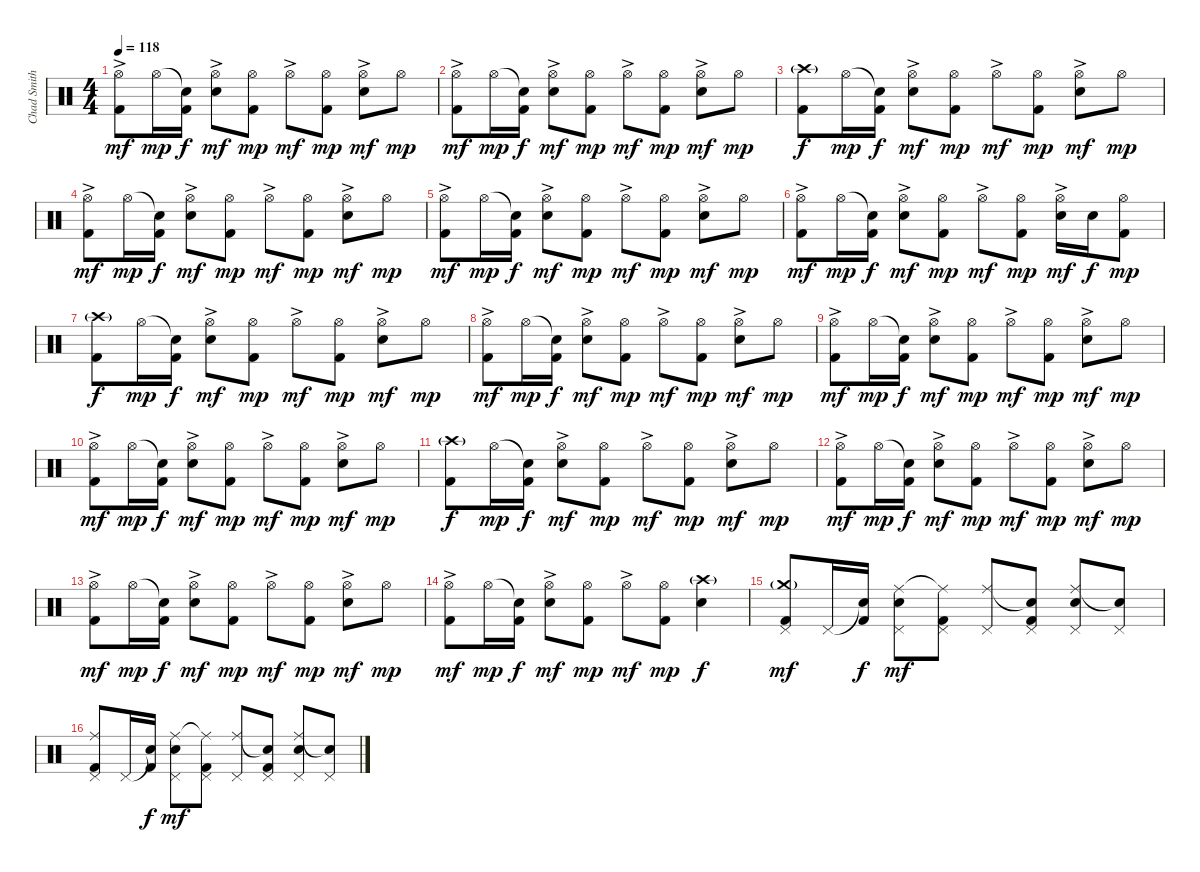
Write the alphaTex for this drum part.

\track ("Chad Smith" "Chad Smith") {instrument percussion}
\staff {score}
\articulation defaults
\ts (4 4)
\tempo 118
\clef neutral
\ks c
("Hi-Hat (open)"{ac} "Kick (hit) 2").8{dy mf} "Hi-Hat (open)".16{dy mp} ("Snare (hit)"{t} "Kick (hit) 2").16{dy f} ("Hi-Hat (open)"{ac} "Electric Snare (hit)").8{dy mf} ("Hi-Hat (open)" "Kick (hit) 2").8{dy mp} "Hi-Hat (open)"{ac}.8{dy mf} ("Hi-Hat (open)" "Kick (hit) 2").8{dy mp} ("Hi-Hat (open)"{ac} "Electric Snare (hit)").8{dy mf} "Hi-Hat (open)".8{dy mp} |
("Hi-Hat (open)"{ac} "Kick (hit) 2").8{dy mf} "Hi-Hat (open)".16{dy mp} ("Snare (hit)"{t} "Kick (hit) 2").16{dy f} ("Hi-Hat (open)"{ac} "Electric Snare (hit)").8{dy mf} ("Hi-Hat (open)" "Kick (hit) 2").8{dy mp} "Hi-Hat (open)"{ac}.8{dy mf} ("Hi-Hat (open)" "Kick (hit) 2").8{dy mp} ("Hi-Hat (open)"{ac} "Electric Snare (hit)").8{dy mf} "Hi-Hat (open)".8{dy mp} |
("Crash high (hit)"{g} "Kick (hit) 2").8{dy f} "Hi-Hat (open)".16{dy mp} ("Snare (hit)"{t} "Kick (hit) 2").16{dy f} ("Hi-Hat (open)"{ac} "Electric Snare (hit)").8{dy mf} ("Hi-Hat (open)" "Kick (hit) 2").8{dy mp} "Hi-Hat (open)"{ac}.8{dy mf} ("Hi-Hat (open)" "Kick (hit) 2").8{dy mp} ("Hi-Hat (open)"{ac} "Electric Snare (hit)").8{dy mf} "Hi-Hat (open)".8{dy mp} |
("Hi-Hat (open)"{ac} "Kick (hit) 2").8{dy mf} "Hi-Hat (open)".16{dy mp} ("Snare (hit)"{t} "Kick (hit) 2").16{dy f} ("Hi-Hat (open)"{ac} "Electric Snare (hit)").8{dy mf} ("Hi-Hat (open)" "Kick (hit) 2").8{dy mp} "Hi-Hat (open)"{ac}.8{dy mf} ("Hi-Hat (open)" "Kick (hit) 2").8{dy mp} ("Hi-Hat (open)"{ac} "Electric Snare (hit)").8{dy mf} "Hi-Hat (open)".8{dy mp} |
("Hi-Hat (open)"{ac} "Kick (hit) 2").8{dy mf} "Hi-Hat (open)".16{dy mp} ("Snare (hit)"{t} "Kick (hit) 2").16{dy f} ("Hi-Hat (open)"{ac} "Electric Snare (hit)").8{dy mf} ("Hi-Hat (open)" "Kick (hit) 2").8{dy mp} "Hi-Hat (open)"{ac}.8{dy mf} ("Hi-Hat (open)" "Kick (hit) 2").8{dy mp} ("Hi-Hat (open)"{ac} "Electric Snare (hit)").8{dy mf} "Hi-Hat (open)".8{dy mp} |
("Hi-Hat (open)"{ac} "Kick (hit) 2").8{dy mf} "Hi-Hat (open)".16{dy mp} ("Snare (hit)"{t} "Kick (hit) 2").16{dy f} ("Hi-Hat (open)"{ac} "Electric Snare (hit)").8{dy mf} ("Hi-Hat (open)" "Kick (hit) 2").8{dy mp} "Hi-Hat (open)"{ac}.8{dy mf} ("Hi-Hat (open)" "Kick (hit) 2").8{dy mp} ("Hi-Hat (open)"{ac} "Electric Snare (hit)").16{dy mf} "Electric Snare (hit)".16{dy f} ("Hi-Hat (open)" "Kick (hit) 2").8{dy mp} |
("Crash high (hit)"{g} "Kick (hit) 2").8{dy f} "Hi-Hat (open)".16{dy mp} ("Snare (hit)"{t} "Kick (hit) 2").16{dy f} ("Hi-Hat (open)"{ac} "Electric Snare (hit)").8{dy mf} ("Hi-Hat (open)" "Kick (hit) 2").8{dy mp} "Hi-Hat (open)"{ac}.8{dy mf} ("Hi-Hat (open)" "Kick (hit) 2").8{dy mp} ("Hi-Hat (open)"{ac} "Electric Snare (hit)").8{dy mf} "Hi-Hat (open)".8{dy mp} |
("Hi-Hat (open)"{ac} "Kick (hit) 2").8{dy mf} "Hi-Hat (open)".16{dy mp} ("Snare (hit)"{t} "Kick (hit) 2").16{dy f} ("Hi-Hat (open)"{ac} "Electric Snare (hit)").8{dy mf} ("Hi-Hat (open)" "Kick (hit) 2").8{dy mp} "Hi-Hat (open)"{ac}.8{dy mf} ("Hi-Hat (open)" "Kick (hit) 2").8{dy mp} ("Hi-Hat (open)"{ac} "Electric Snare (hit)").8{dy mf} "Hi-Hat (open)".8{dy mp} |
("Hi-Hat (open)"{ac} "Kick (hit) 2").8{dy mf} "Hi-Hat (open)".16{dy mp} ("Snare (hit)"{t} "Kick (hit) 2").16{dy f} ("Hi-Hat (open)"{ac} "Electric Snare (hit)").8{dy mf} ("Hi-Hat (open)" "Kick (hit) 2").8{dy mp} "Hi-Hat (open)"{ac}.8{dy mf} ("Hi-Hat (open)" "Kick (hit) 2").8{dy mp} ("Hi-Hat (open)"{ac} "Electric Snare (hit)").8{dy mf} "Hi-Hat (open)".8{dy mp} |
("Hi-Hat (open)"{ac} "Kick (hit) 2").8{dy mf} "Hi-Hat (open)".16{dy mp} ("Snare (hit)"{t} "Kick (hit) 2").16{dy f} ("Hi-Hat (open)"{ac} "Electric Snare (hit)").8{dy mf} ("Hi-Hat (open)" "Kick (hit) 2").8{dy mp} "Hi-Hat (open)"{ac}.8{dy mf} ("Hi-Hat (open)" "Kick (hit) 2").8{dy mp} ("Hi-Hat (open)"{ac} "Electric Snare (hit)").8{dy mf} "Hi-Hat (open)".8{dy mp} |
("Crash high (hit)"{g} "Kick (hit) 2").8{dy f} "Hi-Hat (open)".16{dy mp} ("Snare (hit)"{t} "Kick (hit) 2").16{dy f} ("Hi-Hat (open)"{ac} "Electric Snare (hit)").8{dy mf} ("Hi-Hat (open)" "Kick (hit) 2").8{dy mp} "Hi-Hat (open)"{ac}.8{dy mf} ("Hi-Hat (open)" "Kick (hit) 2").8{dy mp} ("Hi-Hat (open)"{ac} "Electric Snare (hit)").8{dy mf} "Hi-Hat (open)".8{dy mp} |
("Hi-Hat (open)"{ac} "Kick (hit) 2").8{dy mf} "Hi-Hat (open)".16{dy mp} ("Snare (hit)"{t} "Kick (hit) 2").16{dy f} ("Hi-Hat (open)"{ac} "Electric Snare (hit)").8{dy mf} ("Hi-Hat (open)" "Kick (hit) 2").8{dy mp} "Hi-Hat (open)"{ac}.8{dy mf} ("Hi-Hat (open)" "Kick (hit) 2").8{dy mp} ("Hi-Hat (open)"{ac} "Electric Snare (hit)").8{dy mf} "Hi-Hat (open)".8{dy mp} |
("Hi-Hat (open)"{ac} "Kick (hit) 2").8{dy mf} "Hi-Hat (open)".16{dy mp} ("Snare (hit)"{t} "Kick (hit) 2").16{dy f} ("Hi-Hat (open)"{ac} "Electric Snare (hit)").8{dy mf} ("Hi-Hat (open)" "Kick (hit) 2").8{dy mp} "Hi-Hat (open)"{ac}.8{dy mf} ("Hi-Hat (open)" "Kick (hit) 2").8{dy mp} ("Hi-Hat (open)"{ac} "Electric Snare (hit)").8{dy mf} "Hi-Hat (open)".8{dy mp} |
("Hi-Hat (open)"{ac} "Kick (hit) 2").8{dy mf} "Hi-Hat (open)".16{dy mp} ("Snare (hit)"{t} "Kick (hit) 2").16{dy f} ("Hi-Hat (open)"{ac} "Electric Snare (hit)").8{dy mf} ("Hi-Hat (open)" "Kick (hit) 2").8{dy mp} "Hi-Hat (open)"{ac}.8{dy mf} ("Hi-Hat (open)" "Kick (hit) 2").8{dy mp} ("Crash high (hit)"{g} "Electric Snare (hit)").4{dy f} |
("Crash medium (hit)"{g} "Pedal Hi-Hat (hit)" "Kick (hit) 2").8{dy mf} "Pedal Hi-Hat (hit)".16 ("Snare (hit)"{t} "Kick (hit) 2").16{dy f} ("Ride (middle)" "Pedal Hi-Hat (hit)" "Snare (hit) 2").8{dy mf} ("Ride (middle)"{t} "Pedal Hi-Hat (hit)" "Kick (hit) 2").8 ("Ride (middle)" "Pedal Hi-Hat (hit)").8 ("Snare (hit)"{t} "Pedal Hi-Hat (hit)" "Kick (hit) 2").8 ("Ride (middle)" "Pedal Hi-Hat (hit)" "Snare (hit) 2").8 ("Snare (hit)"{t} "Pedal Hi-Hat (hit)").8 |
("Ride (middle)" "Pedal Hi-Hat (hit)" "Kick (hit) 2").8 "Pedal Hi-Hat (hit)".16 ("Snare (hit)"{t} "Kick (hit) 2").16{dy f} ("Ride (middle)" "Pedal Hi-Hat (hit)" "Snare (hit) 2").8{dy mf} ("Ride (middle)"{t} "Pedal Hi-Hat (hit)" "Kick (hit) 2").8 ("Ride (middle)" "Pedal Hi-Hat (hit)").8 ("Snare (hit)"{t} "Pedal Hi-Hat (hit)" "Kick (hit) 2").8 ("Ride (middle)" "Pedal Hi-Hat (hit)" "Snare (hit) 2").8 ("Snare (hit)"{t} "Pedal Hi-Hat (hit)").8
